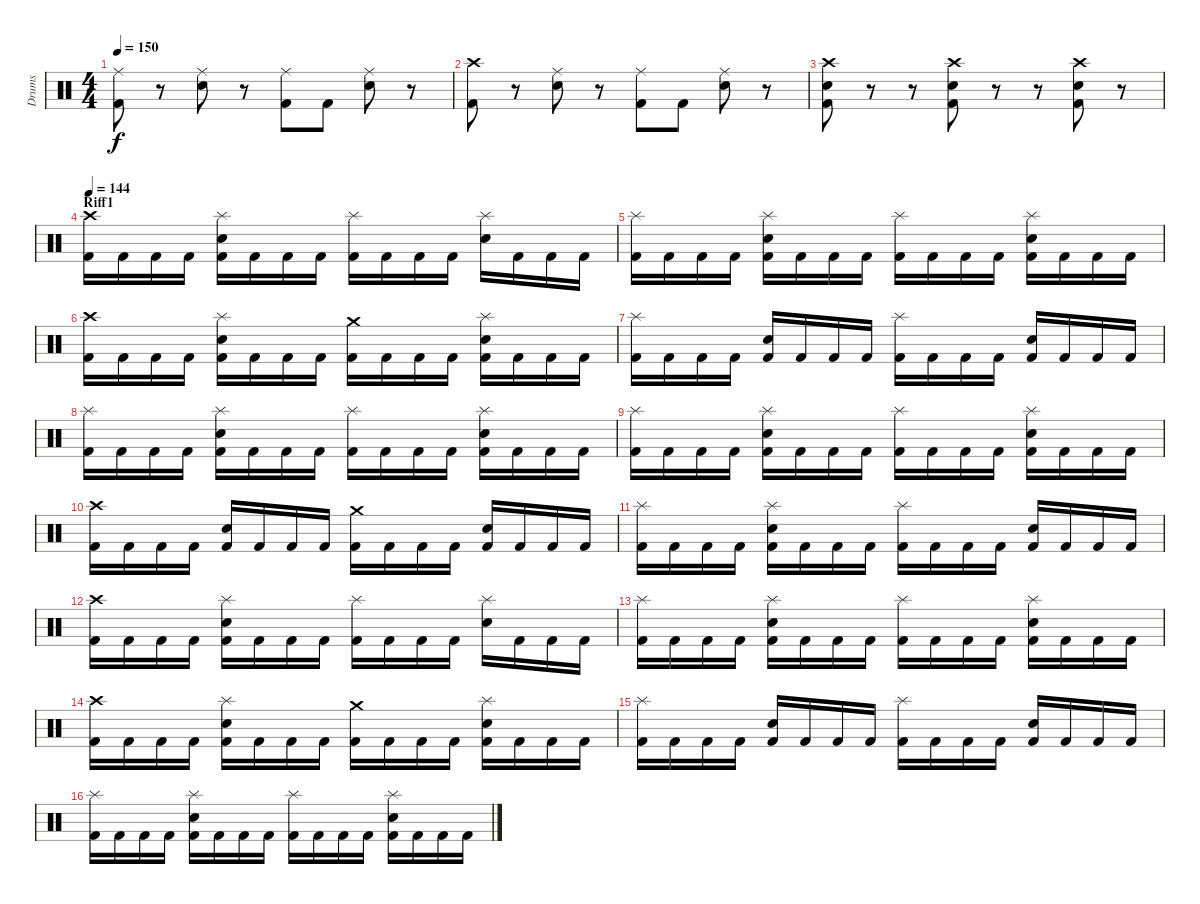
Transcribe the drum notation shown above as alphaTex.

\track ("Drums" "Drums") {instrument percussion}
\staff {score}
\articulation defaults
\ts (4 4)
\tempo 150
\clef neutral
\ks c
("Ride (middle)" "Kick (hit) 2").8{dy f} r.8 ("Ride (middle)" "Snare (hit) 2").8 r.8 ("Ride (middle)" "Kick (hit) 2").8 "Kick (hit) 2".8 ("Ride (middle)" "Snare (hit) 2").8 r.8 |
("Crash high (hit)" "Kick (hit) 2").8 r.8 ("Ride (middle)" "Snare (hit) 2").8 r.8 ("Ride (middle)" "Kick (hit) 2").8 "Kick (hit) 2".8 ("Ride (middle)" "Snare (hit) 2").8 r.8 |
("Crash high (hit)" "Snare (hit) 2" "Kick (hit) 2").8 r.8 r.8 ("Crash high (hit)" "Snare (hit) 2" "Kick (hit) 2").8 r.8 r.8 ("Crash high (hit)" "Snare (hit) 2" "Kick (hit) 2").8 r.8 |
\section ("" "Riff1")
\tempo 144
("Crash high (hit)" "Kick (hit) 2").16 "Kick (hit) 2".16 "Kick (hit) 2".16 "Kick (hit) 2".16 ("Splash (hit)" "Snare (hit) 2" "Kick (hit) 2").16 "Kick (hit) 2".16 "Kick (hit) 2".16 "Kick (hit) 2".16 ("Splash (hit)" "Kick (hit) 2").16 "Kick (hit) 2".16 "Kick (hit) 2".16 "Kick (hit) 2".16 ("Splash (hit)" "Snare (hit) 2").16 "Kick (hit) 2".16 "Kick (hit) 2".16 "Kick (hit) 2".16 |
("Splash (hit)" "Kick (hit) 2").16 "Kick (hit) 2".16 "Kick (hit) 2".16 "Kick (hit) 2".16 ("Splash (hit)" "Snare (hit) 2" "Kick (hit) 2").16 "Kick (hit) 2".16 "Kick (hit) 2".16 "Kick (hit) 2".16 ("Splash (hit)" "Kick (hit) 2").16 "Kick (hit) 2".16 "Kick (hit) 2".16 "Kick (hit) 2".16 ("Splash (hit)" "Snare (hit) 2" "Kick (hit) 2").16 "Kick (hit) 2".16 "Kick (hit) 2".16 "Kick (hit) 2".16 |
("Crash high (hit)" "Kick (hit) 2").16 "Kick (hit) 2".16 "Kick (hit) 2".16 "Kick (hit) 2".16 ("Splash (hit)" "Snare (hit) 2" "Kick (hit) 2").16 "Kick (hit) 2".16 "Kick (hit) 2".16 "Kick (hit) 2".16 ("Crash medium (hit)" "Kick (hit) 2").16 "Kick (hit) 2".16 "Kick (hit) 2".16 "Kick (hit) 2".16 ("Splash (hit)" "Snare (hit) 2" "Kick (hit) 2").16 "Kick (hit) 2".16 "Kick (hit) 2".16 "Kick (hit) 2".16 |
("Splash (hit)" "Kick (hit) 2").16 "Kick (hit) 2".16 "Kick (hit) 2".16 "Kick (hit) 2".16 ("Snare (hit) 2" "Kick (hit) 2").16 "Kick (hit) 2".16 "Kick (hit) 2".16 "Kick (hit) 2".16 ("Splash (hit)" "Kick (hit) 2").16 "Kick (hit) 2".16 "Kick (hit) 2".16 "Kick (hit) 2".16 ("Snare (hit) 2" "Kick (hit) 2").16 "Kick (hit) 2".16 "Kick (hit) 2".16 "Kick (hit) 2".16 |
("Splash (hit)" "Kick (hit) 2").16 "Kick (hit) 2".16 "Kick (hit) 2".16 "Kick (hit) 2".16 ("Splash (hit)" "Snare (hit) 2" "Kick (hit) 2").16 "Kick (hit) 2".16 "Kick (hit) 2".16 "Kick (hit) 2".16 ("Splash (hit)" "Kick (hit) 2").16 "Kick (hit) 2".16 "Kick (hit) 2".16 "Kick (hit) 2".16 ("Splash (hit)" "Snare (hit) 2" "Kick (hit) 2").16 "Kick (hit) 2".16 "Kick (hit) 2".16 "Kick (hit) 2".16 |
("Splash (hit)" "Kick (hit) 2").16 "Kick (hit) 2".16 "Kick (hit) 2".16 "Kick (hit) 2".16 ("Splash (hit)" "Snare (hit) 2" "Kick (hit) 2").16 "Kick (hit) 2".16 "Kick (hit) 2".16 "Kick (hit) 2".16 ("Splash (hit)" "Kick (hit) 2").16 "Kick (hit) 2".16 "Kick (hit) 2".16 "Kick (hit) 2".16 ("Splash (hit)" "Snare (hit) 2" "Kick (hit) 2").16 "Kick (hit) 2".16 "Kick (hit) 2".16 "Kick (hit) 2".16 |
("Crash high (hit)" "Kick (hit) 2").16 "Kick (hit) 2".16 "Kick (hit) 2".16 "Kick (hit) 2".16 ("Snare (hit) 2" "Kick (hit) 2").16 "Kick (hit) 2".16 "Kick (hit) 2".16 "Kick (hit) 2".16 ("Crash medium (hit)" "Kick (hit) 2").16 "Kick (hit) 2".16 "Kick (hit) 2".16 "Kick (hit) 2".16 ("Snare (hit) 2" "Kick (hit) 2").16 "Kick (hit) 2".16 "Kick (hit) 2".16 "Kick (hit) 2".16 |
("Splash (hit)" "Kick (hit) 2").16 "Kick (hit) 2".16 "Kick (hit) 2".16 "Kick (hit) 2".16 ("Splash (hit)" "Snare (hit) 2" "Kick (hit) 2").16 "Kick (hit) 2".16 "Kick (hit) 2".16 "Kick (hit) 2".16 ("Splash (hit)" "Kick (hit) 2").16 "Kick (hit) 2".16 "Kick (hit) 2".16 "Kick (hit) 2".16 ("Snare (hit) 2" "Kick (hit) 2").16 "Kick (hit) 2".16 "Kick (hit) 2".16 "Kick (hit) 2".16 |
("Crash high (hit)" "Kick (hit) 2").16 "Kick (hit) 2".16 "Kick (hit) 2".16 "Kick (hit) 2".16 ("Splash (hit)" "Snare (hit) 2" "Kick (hit) 2").16 "Kick (hit) 2".16 "Kick (hit) 2".16 "Kick (hit) 2".16 ("Splash (hit)" "Kick (hit) 2").16 "Kick (hit) 2".16 "Kick (hit) 2".16 "Kick (hit) 2".16 ("Splash (hit)" "Snare (hit) 2").16 "Kick (hit) 2".16 "Kick (hit) 2".16 "Kick (hit) 2".16 |
("Splash (hit)" "Kick (hit) 2").16 "Kick (hit) 2".16 "Kick (hit) 2".16 "Kick (hit) 2".16 ("Splash (hit)" "Snare (hit) 2" "Kick (hit) 2").16 "Kick (hit) 2".16 "Kick (hit) 2".16 "Kick (hit) 2".16 ("Splash (hit)" "Kick (hit) 2").16 "Kick (hit) 2".16 "Kick (hit) 2".16 "Kick (hit) 2".16 ("Splash (hit)" "Snare (hit) 2" "Kick (hit) 2").16 "Kick (hit) 2".16 "Kick (hit) 2".16 "Kick (hit) 2".16 |
("Crash high (hit)" "Kick (hit) 2").16 "Kick (hit) 2".16 "Kick (hit) 2".16 "Kick (hit) 2".16 ("Splash (hit)" "Snare (hit) 2" "Kick (hit) 2").16 "Kick (hit) 2".16 "Kick (hit) 2".16 "Kick (hit) 2".16 ("Crash medium (hit)" "Kick (hit) 2").16 "Kick (hit) 2".16 "Kick (hit) 2".16 "Kick (hit) 2".16 ("Splash (hit)" "Snare (hit) 2" "Kick (hit) 2").16 "Kick (hit) 2".16 "Kick (hit) 2".16 "Kick (hit) 2".16 |
("Splash (hit)" "Kick (hit) 2").16 "Kick (hit) 2".16 "Kick (hit) 2".16 "Kick (hit) 2".16 ("Snare (hit) 2" "Kick (hit) 2").16 "Kick (hit) 2".16 "Kick (hit) 2".16 "Kick (hit) 2".16 ("Splash (hit)" "Kick (hit) 2").16 "Kick (hit) 2".16 "Kick (hit) 2".16 "Kick (hit) 2".16 ("Snare (hit) 2" "Kick (hit) 2").16 "Kick (hit) 2".16 "Kick (hit) 2".16 "Kick (hit) 2".16 |
("Splash (hit)" "Kick (hit) 2").16 "Kick (hit) 2".16 "Kick (hit) 2".16 "Kick (hit) 2".16 ("Splash (hit)" "Snare (hit) 2" "Kick (hit) 2").16 "Kick (hit) 2".16 "Kick (hit) 2".16 "Kick (hit) 2".16 ("Splash (hit)" "Kick (hit) 2").16 "Kick (hit) 2".16 "Kick (hit) 2".16 "Kick (hit) 2".16 ("Splash (hit)" "Snare (hit) 2" "Kick (hit) 2").16 "Kick (hit) 2".16 "Kick (hit) 2".16 "Kick (hit) 2".16
